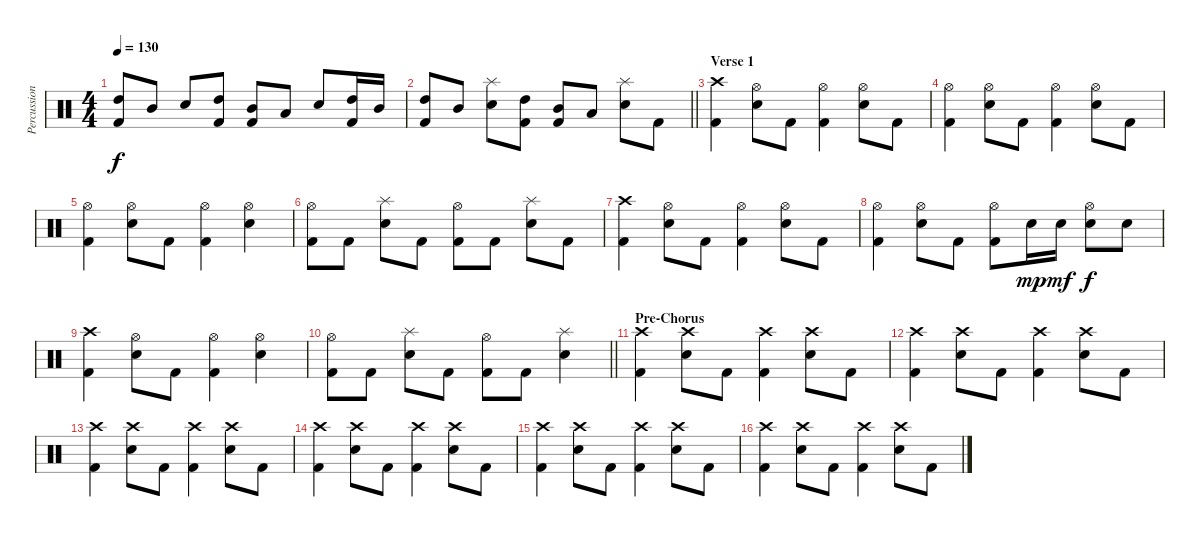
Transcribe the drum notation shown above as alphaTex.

\track ("Percussion" "Percussion") {instrument percussion}
\staff {score}
\articulation defaults
\ts (4 4)
\tempo 130
\clef neutral
\ks c
("High Tom (hit)" "Kick (hit) 2").8{dy f} "Mid Tom (hit)".8 "Electric Snare (hit)".8 ("High Tom (hit)" "Kick (hit) 2").8 ("Mid Tom (hit)" "Kick (hit) 2").8 "Low Tom (hit)".8 "Electric Snare (hit)".8 ("High Tom (hit)" "Kick (hit) 2").16 "Mid Tom (hit)".16 |
\barLineRight lightlight
("High Tom (hit)" "Kick (hit) 2").8 "Mid Tom (hit)".8 ("Splash (hit)" "Electric Snare (hit)").8 ("High Tom (hit)" "Kick (hit) 2").8 ("Mid Tom (hit)" "Kick (hit) 2").8 "Low Tom (hit)".8 ("Splash (hit)" "Electric Snare (hit)").8 "Kick (hit) 2".8 |
\section ("" "Verse 1")
("Crash high (hit)" "Kick (hit) 2").4 ("Hi-Hat (open)" "Electric Snare (hit)").8 "Kick (hit) 2".8 ("Hi-Hat (open)" "Kick (hit) 2").4 ("Hi-Hat (open)" "Electric Snare (hit)").8 "Kick (hit) 2".8 |
("Hi-Hat (open)" "Kick (hit) 2").4 ("Hi-Hat (open)" "Electric Snare (hit)").8 "Kick (hit) 2".8 ("Hi-Hat (open)" "Kick (hit) 2").4 ("Hi-Hat (open)" "Electric Snare (hit)").8 "Kick (hit) 2".8 |
("Hi-Hat (open)" "Kick (hit) 2").4 ("Hi-Hat (open)" "Electric Snare (hit)").8 "Kick (hit) 2".8 ("Hi-Hat (open)" "Kick (hit) 2").4 ("Hi-Hat (open)" "Electric Snare (hit)").4 |
("Hi-Hat (open)" "Kick (hit) 2").8 "Kick (hit) 2".8 ("Splash (hit)" "Electric Snare (hit)").8 "Kick (hit) 2".8 ("Hi-Hat (open)" "Kick (hit) 2").8 "Kick (hit) 2".8 ("Splash (hit)" "Electric Snare (hit)").8 "Kick (hit) 2".8 |
("Crash high (hit)" "Kick (hit) 2").4 ("Hi-Hat (open)" "Electric Snare (hit)").8 "Kick (hit) 2".8 ("Hi-Hat (open)" "Kick (hit) 2").4 ("Hi-Hat (open)" "Electric Snare (hit)").8 "Kick (hit) 2".8 |
("Hi-Hat (open)" "Kick (hit) 2").4 ("Hi-Hat (open)" "Electric Snare (hit)").8 "Kick (hit) 2".8 ("Hi-Hat (open)" "Kick (hit) 2").8 "Electric Snare (hit)".16{dy mp} "Electric Snare (hit)".16{dy mf} ("Hi-Hat (open)" "Electric Snare (hit)").8{dy f} "Electric Snare (hit)".8 |
("Crash high (hit)" "Kick (hit) 2").4 ("Hi-Hat (open)" "Electric Snare (hit)").8 "Kick (hit) 2".8 ("Hi-Hat (open)" "Kick (hit) 2").4 ("Hi-Hat (open)" "Electric Snare (hit)").4 |
\barLineRight lightlight
("Hi-Hat (open)" "Kick (hit) 2").8 "Kick (hit) 2".8 ("Splash (hit)" "Electric Snare (hit)").8 "Kick (hit) 2".8 ("Hi-Hat (open)" "Kick (hit) 2").8 "Kick (hit) 2".8 ("Splash (hit)" "Electric Snare (hit)").4 |
\section ("" "Pre-Chorus")
("Crash high (hit)" "Kick (hit) 2").4 ("Crash high (hit)" "Electric Snare (hit)").8 "Kick (hit) 2".8 ("Crash high (hit)" "Kick (hit) 2").4 ("Crash high (hit)" "Electric Snare (hit)").8 "Kick (hit) 2".8 |
("Crash high (hit)" "Kick (hit) 2").4 ("Crash high (hit)" "Electric Snare (hit)").8 "Kick (hit) 2".8 ("Crash high (hit)" "Kick (hit) 2").4 ("Crash high (hit)" "Electric Snare (hit)").8 "Kick (hit) 2".8 |
("Crash high (hit)" "Kick (hit) 2").4 ("Crash high (hit)" "Electric Snare (hit)").8 "Kick (hit) 2".8 ("Crash high (hit)" "Kick (hit) 2").4 ("Crash high (hit)" "Electric Snare (hit)").8 "Kick (hit) 2".8 |
("Crash high (hit)" "Kick (hit) 2").4 ("Crash high (hit)" "Electric Snare (hit)").8 "Kick (hit) 2".8 ("Crash high (hit)" "Kick (hit) 2").4 ("Crash high (hit)" "Electric Snare (hit)").8 "Kick (hit) 2".8 |
("Crash high (hit)" "Kick (hit) 2").4 ("Crash high (hit)" "Electric Snare (hit)").8 "Kick (hit) 2".8 ("Crash high (hit)" "Kick (hit) 2").4 ("Crash high (hit)" "Electric Snare (hit)").8 "Kick (hit) 2".8 |
("Crash high (hit)" "Kick (hit) 2").4 ("Crash high (hit)" "Electric Snare (hit)").8 "Kick (hit) 2".8 ("Crash high (hit)" "Kick (hit) 2").4 ("Crash high (hit)" "Electric Snare (hit)").8 "Kick (hit) 2".8
